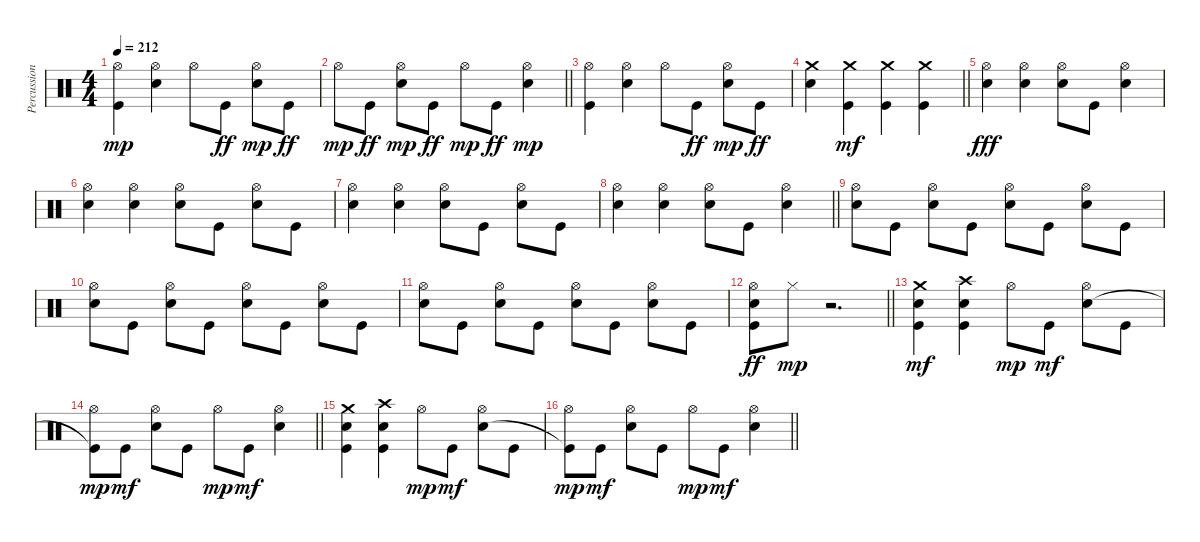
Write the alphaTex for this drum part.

\track ("Percussion" "Percussion") {instrument percussion}
\staff {score}
\articulation defaults
\ts (4 4)
\tempo 212
\clef neutral
\ks c
("Hi-Hat (open)" "Kick (hit)").4{dy mp} ("Hi-Hat (open)" "Snare (hit) 2").4 "Hi-Hat (open)".8 "Kick (hit)".8{dy ff} ("Hi-Hat (open)" "Snare (hit) 2").8{dy mp} "Kick (hit)".8{dy ff} |
\barLineRight lightlight "Hi-Hat (open)".8{dy mp} "Kick (hit)".8{dy ff}
("Hi-Hat (open)" "Snare (hit) 2").8{dy mp} "Kick (hit)".8{dy ff} "Hi-Hat (open)".8{dy mp} "Kick (hit)".8{dy ff} ("Hi-Hat (open)" "Snare (hit) 2").4{dy mp} |
("Hi-Hat (open)" "Kick (hit)").4 ("Hi-Hat (open)" "Snare (hit) 2").4 "Hi-Hat (open)".8 "Kick (hit)".8{dy ff} ("Hi-Hat (open)" "Snare (hit) 2").8{dy mp} "Kick (hit)".8{dy ff} |
\barLineRight lightlight
("Crash medium (hit)" "Snare (hit) 2").4{volume 15} ("Crash medium (hit)" "Kick (hit)").4{dy mf} ("Crash medium (hit)" "Kick (hit)").4 ("Crash medium (hit)" "Kick (hit)").4 |
("Hi-Hat (open)" "Snare (hit) 2").4{dy fff} ("Hi-Hat (open)" "Snare (hit) 2").4 ("Hi-Hat (open)" "Snare (hit) 2").8 "Kick (hit)".8 ("Hi-Hat (open)" "Snare (hit) 2").4 |
("Hi-Hat (open)" "Snare (hit) 2").4 ("Hi-Hat (open)" "Snare (hit) 2").4 ("Hi-Hat (open)" "Snare (hit) 2").8 "Kick (hit)".8 ("Hi-Hat (open)" "Snare (hit) 2").8 "Kick (hit)".8 |
("Hi-Hat (open)" "Snare (hit) 2").4 ("Hi-Hat (open)" "Snare (hit) 2").4 ("Hi-Hat (open)" "Snare (hit) 2").8 "Kick (hit)".8 ("Hi-Hat (open)" "Snare (hit) 2").8 "Kick (hit)".8 |
\barLineRight lightlight
("Hi-Hat (open)" "Snare (hit) 2").4 ("Hi-Hat (open)" "Snare (hit) 2").4 ("Hi-Hat (open)" "Snare (hit) 2").8 "Kick (hit)".8 ("Hi-Hat (open)" "Snare (hit) 2").4 |
("Hi-Hat (open)" "Snare (hit) 2").8 "Kick (hit)".8 ("Hi-Hat (open)" "Snare (hit) 2").8 "Kick (hit)".8 ("Hi-Hat (open)" "Snare (hit) 2").8 "Kick (hit)".8 ("Hi-Hat (open)" "Snare (hit) 2").8 "Kick (hit)".8 |
("Hi-Hat (open)" "Snare (hit) 2").8 "Kick (hit)".8 ("Hi-Hat (open)" "Snare (hit) 2").8 "Kick (hit)".8 ("Hi-Hat (open)" "Snare (hit) 2").8 "Kick (hit)".8 ("Hi-Hat (open)" "Snare (hit) 2").8 "Kick (hit)".8 |
("Hi-Hat (open)" "Snare (hit) 2").8 "Kick (hit)".8 ("Hi-Hat (open)" "Snare (hit) 2").8 "Kick (hit)".8 ("Hi-Hat (open)" "Snare (hit) 2").8 "Kick (hit)".8 ("Hi-Hat (open)" "Snare (hit) 2").8 "Kick (hit)".8 |
\barLineRight lightlight
("Hi-Hat (open)" "Snare (hit) 2" "Kick (hit)").8{dy ff} "Hi-Hat (closed)".8{dy mp} r.2{d volume 10} |
("Crash medium (hit)" "Snare (hit) 2" "Kick (hit)").4{dy mf} ("Crash high (hit)" "Snare (hit) 2" "Kick (hit)").4 "Hi-Hat (open)".8{dy mp} "Kick (hit)".8{dy mf} ("Hi-Hat (open)" "Snare (hit) 2").8 "Kick (hit)".8 |
\barLineRight lightlight
("Hi-Hat (open)" "Kick (hit)"{t}).8{dy mp} "Kick (hit)".8{dy mf} ("Hi-Hat (open)" "Snare (hit) 2").8 "Kick (hit)".8 "Hi-Hat (open)".8{dy mp} "Kick (hit)".8{dy mf} ("Hi-Hat (open)" "Snare (hit) 2").4 |
("Crash medium (hit)" "Snare (hit) 2" "Kick (hit)").4 ("Crash high (hit)" "Snare (hit) 2" "Kick (hit)").4 "Hi-Hat (open)".8{dy mp} "Kick (hit)".8{dy mf} ("Hi-Hat (open)" "Snare (hit) 2").8 "Kick (hit)".8 |
\barLineRight lightlight
("Hi-Hat (open)" "Kick (hit)"{t}).8{dy mp} "Kick (hit)".8{dy mf} ("Hi-Hat (open)" "Snare (hit) 2").8 "Kick (hit)".8 "Hi-Hat (open)".8{dy mp} "Kick (hit)".8{dy mf} ("Hi-Hat (open)" "Snare (hit) 2").4
